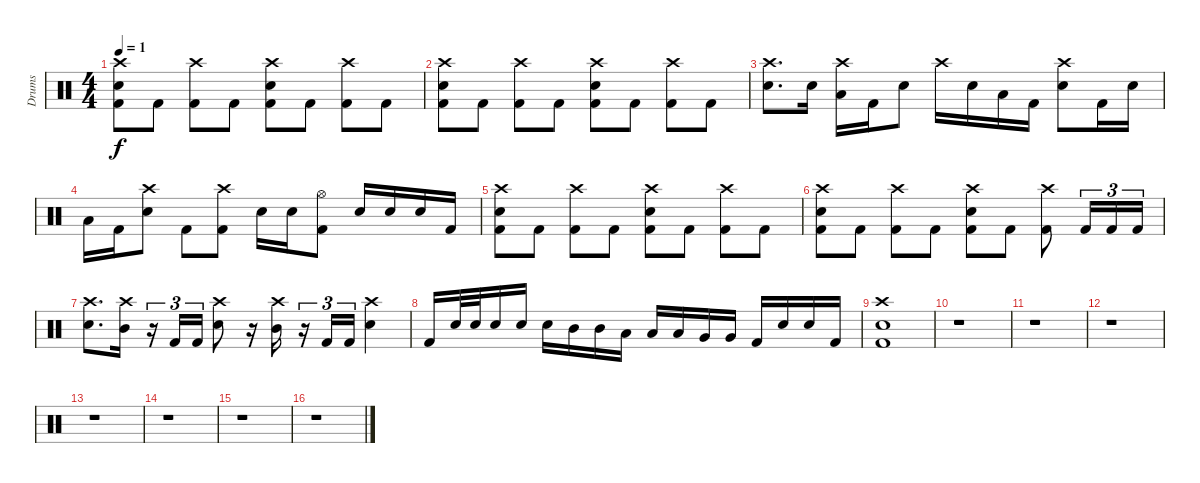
\track ("Drums" "Drums") {instrument percussion}
\staff {score}
\articulation defaults
\ts (4 4)
\tempo 1
\clef neutral
\ks c
("Crash high (hit)" "Snare (hit) 2" "Kick (hit) 2").8{dy f} "Kick (hit) 2".8 ("Crash high (hit)" "Kick (hit) 2").8 "Kick (hit) 2".8 ("Crash high (hit)" "Snare (hit) 2" "Kick (hit) 2").8 "Kick (hit) 2".8 ("Crash high (hit)" "Kick (hit) 2").8 "Kick (hit) 2".8 |
("Crash high (hit)" "Snare (hit) 2" "Kick (hit) 2").8 "Kick (hit) 2".8 ("Crash high (hit)" "Kick (hit) 2").8 "Kick (hit) 2".8 ("Crash high (hit)" "Snare (hit) 2" "Kick (hit) 2").8 "Kick (hit) 2".8 ("Crash high (hit)" "Kick (hit) 2").8 "Kick (hit) 2".8 |
("Crash high (hit)" "Snare (hit) 2").8{d} "Snare (hit) 2".16 ("Crash high (hit)" "Low Tom (hit)").16 "Kick (hit) 2".16 "Snare (hit) 2".8 "Crash high (hit)".16 "Snare (hit) 2".16 "Low Tom (hit)".16 "Kick (hit) 2".16 ("Crash high (hit)" "Snare (hit) 2").8 "Kick (hit) 2".16 "Snare (hit) 2".16 |
"Low Tom (hit)".16 "Kick (hit) 2".16 ("Crash high (hit)" "Snare (hit) 2").8 "Kick (hit) 2".8 ("Crash high (hit)" "Kick (hit) 2").8 "Snare (hit) 2".16 "Snare (hit) 2".16 ("Hi-Hat (open)" "Kick (hit) 2").8 "Snare (hit) 2".16 "Snare (hit) 2".16 "Snare (hit) 2".16 "Kick (hit) 2".16 |
("Crash high (hit)" "Snare (hit) 2" "Kick (hit) 2").8 "Kick (hit) 2".8 ("Crash high (hit)" "Kick (hit) 2").8 "Kick (hit) 2".8 ("Crash high (hit)" "Snare (hit) 2" "Kick (hit) 2").8 "Kick (hit) 2".8 ("Crash high (hit)" "Kick (hit) 2").8 "Kick (hit) 2".8 |
("Crash high (hit)" "Snare (hit) 2" "Kick (hit) 2").8 "Kick (hit) 2".8 ("Crash high (hit)" "Kick (hit) 2").8 "Kick (hit) 2".8 ("Crash high (hit)" "Snare (hit) 2" "Kick (hit) 2").8 "Kick (hit) 2".8 ("Crash high (hit)" "Kick (hit) 2").8 "Kick (hit) 2".16{tu (3 2)} "Kick (hit) 2".16{tu (3 2)} "Kick (hit) 2".16{tu (3 2)} |
("Crash high (hit)" "Snare (hit) 2").8{d} ("Crash high (hit)" "Mid Tom (hit)").16 r.16{tu (3 2)} "Kick (hit) 2".16{tu (3 2)} "Kick (hit) 2".16{tu (3 2)} ("Crash high (hit)" "Snare (hit) 2").8 r.16 ("Crash high (hit)" "Mid Tom (hit)").16 r.16{tu (3 2)} "Kick (hit) 2".16{tu (3 2)} "Kick (hit) 2".16{tu (3 2)} ("Crash high (hit)" "Snare (hit) 2").4 |
"Kick (hit) 2".16 "Snare (hit) 2".32 "Snare (hit) 2".32 "Snare (hit) 2".16 "Snare (hit) 2".16 "Snare (hit) 2".16 "Mid Tom (hit)".16 "Mid Tom (hit)".16 "Low Tom (hit)".16 "Low Tom (hit)".16 "Low Tom (hit)".16 "Very Low Tom (hit)".16 "Very Low Tom (hit)".16 "Kick (hit) 2".16 "Snare (hit) 2".16 "Snare (hit) 2".16 "Kick (hit) 2".16 |
("Crash high (hit)" "Snare (hit) 2" "Kick (hit) 2").1 |
r.1 |
r.1 |
r.1 |
r.1 |
r.1 |
r.1 |
r.1
